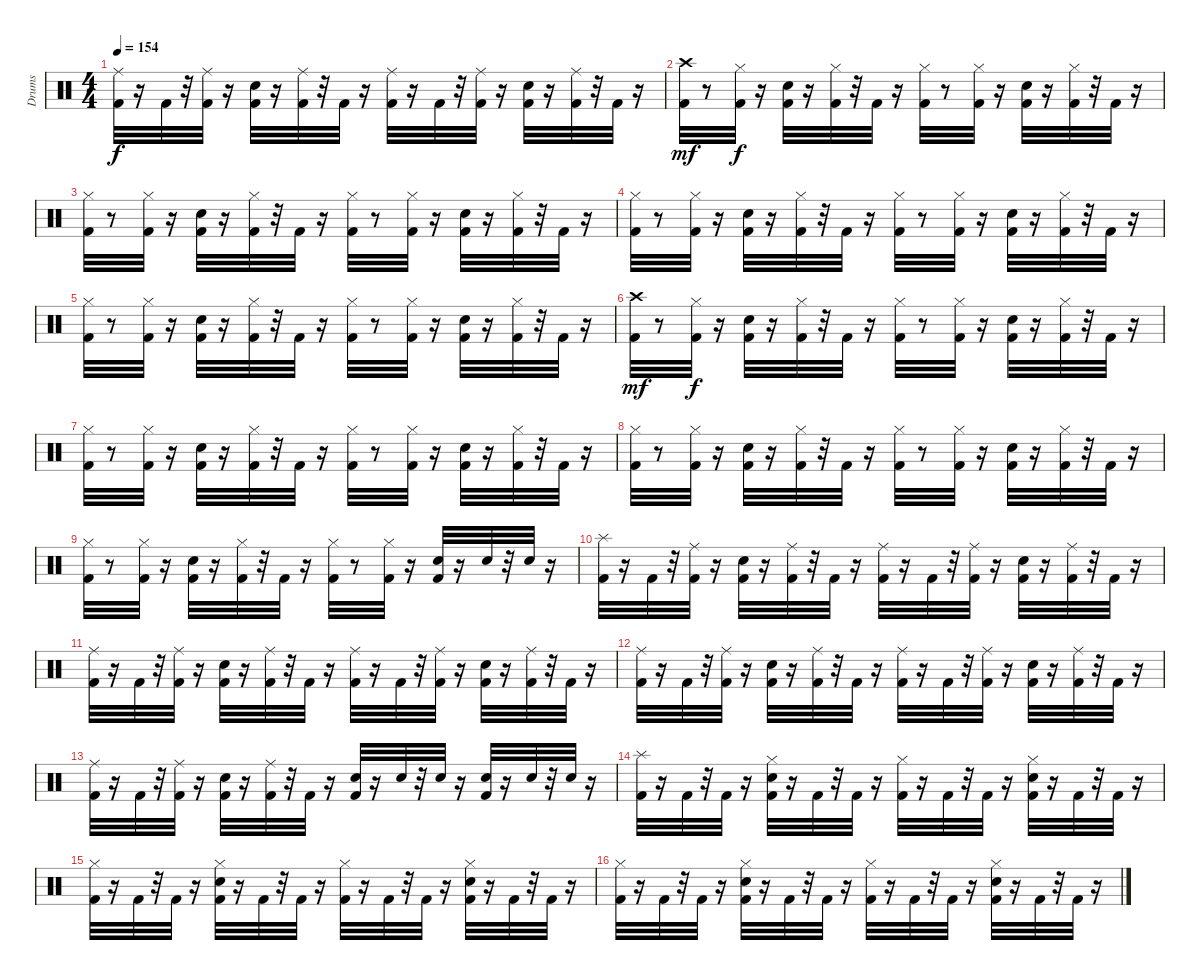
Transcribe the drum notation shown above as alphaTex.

\track ("Drums" "Drums") {instrument percussion}
\staff {score}
\articulation defaults
\ts (4 4)
\tempo 154
\clef neutral
\ks c
("Kick (hit) 2" "Ride (middle)").32{dy f} r.16 "Kick (hit) 2".32 r.32 ("Kick (hit) 2" "Ride (middle)").32 r.16 ("Kick (hit) 2" "Snare (hit) 2").32 r.16 ("Kick (hit) 2" "Ride (middle)").32 r.32 "Kick (hit) 2".32 r.16 ("Kick (hit) 2" "Ride (middle)").32 r.16 "Kick (hit) 2".32 r.32 ("Kick (hit) 2" "Ride (middle)").32 r.16 ("Kick (hit) 2" "Snare (hit) 2").32 r.16 ("Kick (hit) 2" "Ride (middle)").32 r.32 "Kick (hit) 2".32 r.16 |
("Kick (hit) 2" "Crash high (hit)").32{dy mf} r.8 ("Kick (hit) 2" "Hi-Hat (closed)").32{dy f} r.16 ("Kick (hit) 2" "Snare (hit) 2").32 r.16 ("Kick (hit) 2" "Hi-Hat (closed)").32 r.32 "Kick (hit) 2".32 r.16 ("Kick (hit) 2" "Hi-Hat (closed)").32 r.8 ("Kick (hit) 2" "Hi-Hat (closed)").32 r.16 ("Kick (hit) 2" "Snare (hit) 2").32 r.16 ("Kick (hit) 2" "Hi-Hat (closed)").32 r.32 "Kick (hit) 2".32 r.16 |
("Kick (hit) 2" "Hi-Hat (closed)").32 r.8 ("Kick (hit) 2" "Hi-Hat (closed)").32 r.16 ("Kick (hit) 2" "Snare (hit) 2").32 r.16 ("Kick (hit) 2" "Hi-Hat (closed)").32 r.32 "Kick (hit) 2".32 r.16 ("Kick (hit) 2" "Hi-Hat (closed)").32 r.8 ("Kick (hit) 2" "Hi-Hat (closed)").32 r.16 ("Kick (hit) 2" "Snare (hit) 2").32 r.16 ("Kick (hit) 2" "Hi-Hat (closed)").32 r.32 "Kick (hit) 2".32 r.16 |
("Kick (hit) 2" "Hi-Hat (closed)").32 r.8 ("Kick (hit) 2" "Hi-Hat (closed)").32 r.16 ("Kick (hit) 2" "Snare (hit) 2").32 r.16 ("Kick (hit) 2" "Hi-Hat (closed)").32 r.32 "Kick (hit) 2".32 r.16 ("Kick (hit) 2" "Hi-Hat (closed)").32 r.8 ("Kick (hit) 2" "Hi-Hat (closed)").32 r.16 ("Kick (hit) 2" "Snare (hit) 2").32 r.16 ("Kick (hit) 2" "Hi-Hat (closed)").32 r.32 "Kick (hit) 2".32 r.16 |
("Kick (hit) 2" "Hi-Hat (closed)").32 r.8 ("Kick (hit) 2" "Hi-Hat (closed)").32 r.16 ("Kick (hit) 2" "Snare (hit) 2").32 r.16 ("Kick (hit) 2" "Hi-Hat (closed)").32 r.32 "Kick (hit) 2".32 r.16 ("Kick (hit) 2" "Hi-Hat (closed)").32 r.8 ("Kick (hit) 2" "Hi-Hat (closed)").32 r.16 ("Kick (hit) 2" "Snare (hit) 2").32 r.16 ("Kick (hit) 2" "Hi-Hat (closed)").32 r.32 "Kick (hit) 2".32 r.16 |
("Kick (hit) 2" "Crash high (hit)").32{dy mf} r.8 ("Kick (hit) 2" "Hi-Hat (closed)").32{dy f} r.16 ("Kick (hit) 2" "Snare (hit) 2").32 r.16 ("Kick (hit) 2" "Hi-Hat (closed)").32 r.32 "Kick (hit) 2".32 r.16 ("Kick (hit) 2" "Hi-Hat (closed)").32 r.8 ("Kick (hit) 2" "Hi-Hat (closed)").32 r.16 ("Kick (hit) 2" "Snare (hit) 2").32 r.16 ("Kick (hit) 2" "Hi-Hat (closed)").32 r.32 "Kick (hit) 2".32 r.16 |
("Kick (hit) 2" "Hi-Hat (closed)").32 r.8 ("Kick (hit) 2" "Hi-Hat (closed)").32 r.16 ("Kick (hit) 2" "Snare (hit) 2").32 r.16 ("Kick (hit) 2" "Hi-Hat (closed)").32 r.32 "Kick (hit) 2".32 r.16 ("Kick (hit) 2" "Hi-Hat (closed)").32 r.8 ("Kick (hit) 2" "Hi-Hat (closed)").32 r.16 ("Kick (hit) 2" "Snare (hit) 2").32 r.16 ("Kick (hit) 2" "Hi-Hat (closed)").32 r.32 "Kick (hit) 2".32 r.16 |
("Kick (hit) 2" "Hi-Hat (closed)").32 r.8 ("Kick (hit) 2" "Hi-Hat (closed)").32 r.16 ("Kick (hit) 2" "Snare (hit) 2").32 r.16 ("Kick (hit) 2" "Hi-Hat (closed)").32 r.32 "Kick (hit) 2".32 r.16 ("Kick (hit) 2" "Hi-Hat (closed)").32 r.8 ("Kick (hit) 2" "Hi-Hat (closed)").32 r.16 ("Kick (hit) 2" "Snare (hit) 2").32 r.16 ("Kick (hit) 2" "Hi-Hat (closed)").32 r.32 "Kick (hit) 2".32 r.16 |
("Kick (hit) 2" "Hi-Hat (closed)").32 r.8 ("Kick (hit) 2" "Hi-Hat (closed)").32 r.16 ("Kick (hit) 2" "Snare (hit) 2").32 r.16 ("Kick (hit) 2" "Hi-Hat (closed)").32 r.32 "Kick (hit) 2".32 r.16 ("Kick (hit) 2" "Hi-Hat (closed)").32 r.8 ("Kick (hit) 2" "Hi-Hat (closed)").32 r.16 ("Kick (hit) 2" "Snare (hit) 2").32 r.16 "Snare (hit) 2".32 r.32 "Snare (hit) 2".32 r.16 |
("Kick (hit) 2" "Splash (hit)").32 r.16 "Kick (hit) 2".32 r.32 ("Kick (hit) 2" "Ride (middle)").32 r.16 ("Kick (hit) 2" "Snare (hit) 2").32 r.16 ("Kick (hit) 2" "Ride (middle)").32 r.32 "Kick (hit) 2".32 r.16 ("Kick (hit) 2" "Ride (middle)").32 r.16 "Kick (hit) 2".32 r.32 ("Kick (hit) 2" "Ride (middle)").32 r.16 ("Kick (hit) 2" "Snare (hit) 2").32 r.16 ("Kick (hit) 2" "Ride (middle)").32 r.32 "Kick (hit) 2".32 r.16 |
("Kick (hit) 2" "Ride (middle)").32 r.16 "Kick (hit) 2".32 r.32 ("Kick (hit) 2" "Ride (middle)").32 r.16 ("Kick (hit) 2" "Snare (hit) 2").32 r.16 ("Kick (hit) 2" "Ride (middle)").32 r.32 "Kick (hit) 2".32 r.16 ("Kick (hit) 2" "Ride (middle)").32 r.16 "Kick (hit) 2".32 r.32 ("Kick (hit) 2" "Ride (middle)").32 r.16 ("Kick (hit) 2" "Snare (hit) 2").32 r.16 ("Kick (hit) 2" "Ride (middle)").32 r.32 "Kick (hit) 2".32 r.16 |
("Kick (hit) 2" "Ride (middle)").32 r.16 "Kick (hit) 2".32 r.32 ("Kick (hit) 2" "Ride (middle)").32 r.16 ("Kick (hit) 2" "Snare (hit) 2").32 r.16 ("Kick (hit) 2" "Ride (middle)").32 r.32 "Kick (hit) 2".32 r.16 ("Kick (hit) 2" "Ride (middle)").32 r.16 "Kick (hit) 2".32 r.32 ("Kick (hit) 2" "Ride (middle)").32 r.16 ("Kick (hit) 2" "Snare (hit) 2").32 r.16 ("Kick (hit) 2" "Ride (middle)").32 r.32 "Kick (hit) 2".32 r.16 |
("Kick (hit) 2" "Ride (middle)").32 r.16 "Kick (hit) 2".32 r.32 ("Kick (hit) 2" "Ride (middle)").32 r.16 ("Kick (hit) 2" "Snare (hit) 2").32 r.16 ("Kick (hit) 2" "Ride (middle)").32 r.32 "Kick (hit) 2".32 r.16 ("Kick (hit) 2" "Snare (hit) 2").32 r.16 "Snare (hit) 2".32 r.32 "Snare (hit) 2".32 r.16 ("Kick (hit) 2" "Snare (hit) 2").32 r.16 "Snare (hit) 2".32 r.32 "Snare (hit) 2".32 r.16 |
("Kick (hit) 2" "Splash (hit)").32 r.16 "Kick (hit) 2".32 r.32 "Kick (hit) 2".32 r.16 ("Kick (hit) 2" "Snare (hit) 2" "Hi-Hat (closed)").32 r.16 "Kick (hit) 2".32 r.32 "Kick (hit) 2".32 r.16 ("Kick (hit) 2" "Hi-Hat (closed)").32 r.16 "Kick (hit) 2".32 r.32 "Kick (hit) 2".32 r.16 ("Kick (hit) 2" "Snare (hit) 2" "Hi-Hat (closed)").32 r.16 "Kick (hit) 2".32 r.32 "Kick (hit) 2".32 r.16 |
("Kick (hit) 2" "Hi-Hat (closed)").32 r.16 "Kick (hit) 2".32 r.32 "Kick (hit) 2".32 r.16 ("Kick (hit) 2" "Snare (hit) 2" "Hi-Hat (closed)").32 r.16 "Kick (hit) 2".32 r.32 "Kick (hit) 2".32 r.16 ("Kick (hit) 2" "Hi-Hat (closed)").32 r.16 "Kick (hit) 2".32 r.32 "Kick (hit) 2".32 r.16 ("Kick (hit) 2" "Snare (hit) 2" "Hi-Hat (closed)").32 r.16 "Kick (hit) 2".32 r.32 "Kick (hit) 2".32 r.16 |
("Kick (hit) 2" "Hi-Hat (closed)").32 r.16 "Kick (hit) 2".32 r.32 "Kick (hit) 2".32 r.16 ("Kick (hit) 2" "Snare (hit) 2" "Hi-Hat (closed)").32 r.16 "Kick (hit) 2".32 r.32 "Kick (hit) 2".32 r.16 ("Kick (hit) 2" "Hi-Hat (closed)").32 r.16 "Kick (hit) 2".32 r.32 "Kick (hit) 2".32 r.16 ("Kick (hit) 2" "Snare (hit) 2" "Hi-Hat (closed)").32 r.16 "Kick (hit) 2".32 r.32 "Kick (hit) 2".32 r.16
